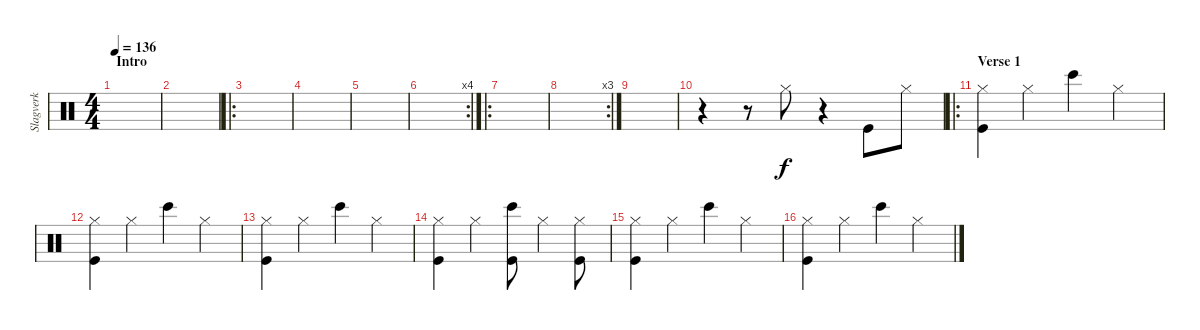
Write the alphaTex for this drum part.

\track ("Slagverk" "Slagverk") {instrument percussion}
\staff {score}
\articulation defaults
\ts (4 4)
\section ("" "Intro")
\tempo 136
\clef neutral
\ks c
|
|
\ro
|
|
|
\rc 4
|
\ro
|
\rc 3
|
|
r.4 r.8 "Hi-Hat (closed)".8 r.4 "Kick (hit)".8 "Hi-Hat (closed)".8 |
\ro
\section ("" "Verse 1")
("Hi-Hat (closed)" "Kick (hit)").4 "Hi-Hat (closed)".4 "Bongo High (hit)".4 "Hi-Hat (closed)".4 |
("Hi-Hat (closed)" "Kick (hit)").4 "Hi-Hat (closed)".4 "Bongo High (hit)".4 "Hi-Hat (closed)".4 |
("Hi-Hat (closed)" "Kick (hit)").4 "Hi-Hat (closed)".4 "Bongo High (hit)".4 "Hi-Hat (closed)".4 |
("Hi-Hat (closed)" "Kick (hit)").4 "Hi-Hat (closed)".4 ("Bongo High (hit)" "Kick (hit)").8 "Hi-Hat (closed)".4 ("Hi-Hat (closed)" "Kick (hit)").8 |
("Hi-Hat (closed)" "Kick (hit)").4 "Hi-Hat (closed)".4 "Bongo High (hit)".4 "Hi-Hat (closed)".4 |
("Hi-Hat (closed)" "Kick (hit)").4 "Hi-Hat (closed)".4 "Bongo High (hit)".4 "Hi-Hat (closed)".4
